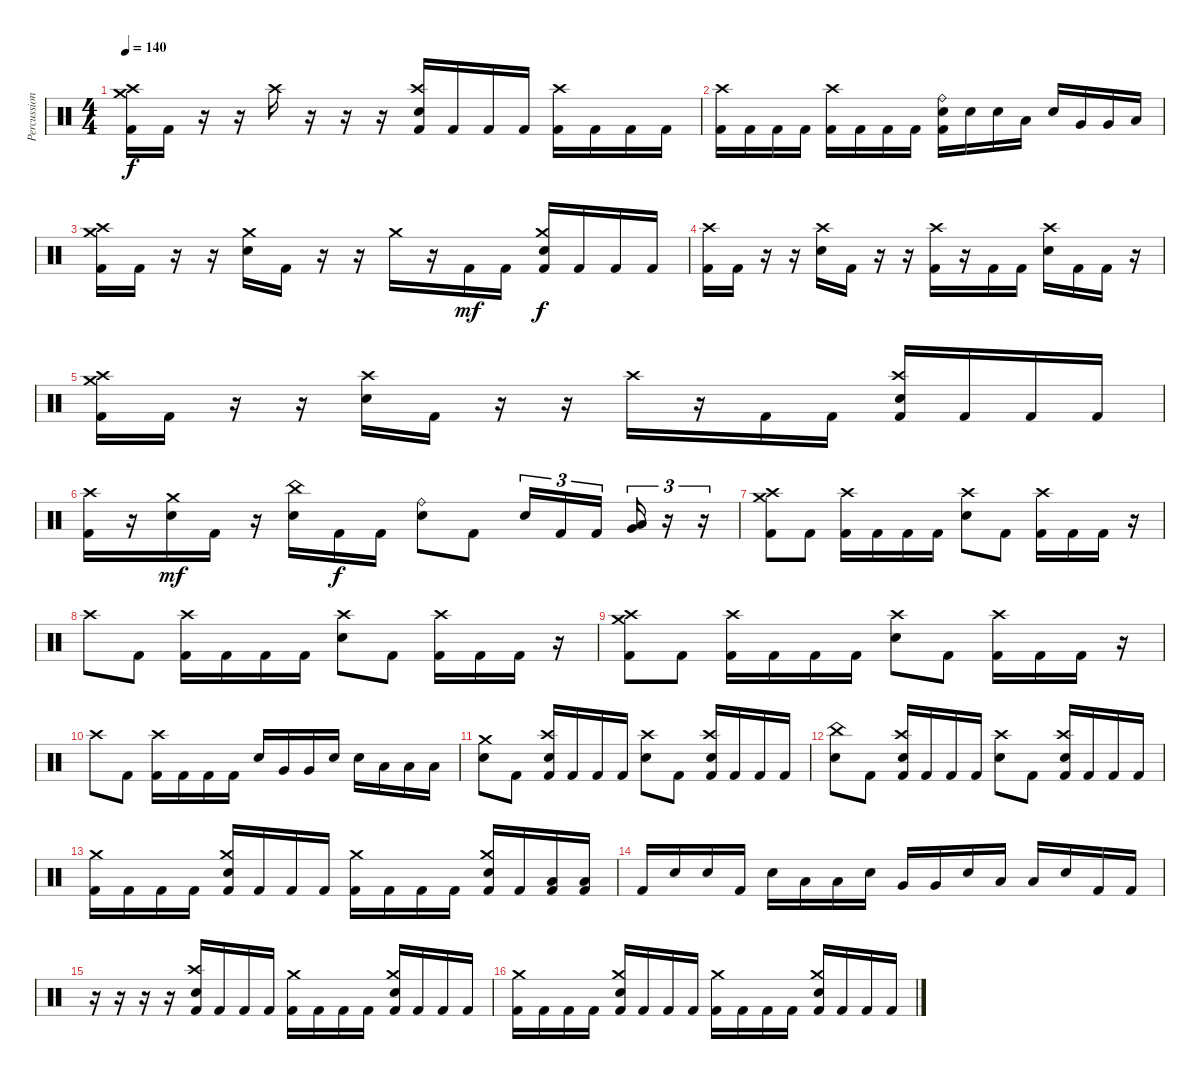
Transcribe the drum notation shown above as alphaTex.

\track ("Percussioni" "Percussion") {mute instrument percussion}
\staff {score}
\articulation defaults
\ts (4 4)
\tempo 140
\clef neutral
\ks c
("Kick (hit) 2" "Crash high (hit)" "Crash medium (hit)").16{dy f} "Kick (hit) 2".16 r.16 r.16 "Crash high (hit)".16 r.16 r.16 r.16 ("Kick (hit) 2" "Snare (hit) 2" "Crash high (hit)").16 "Kick (hit) 2".16 "Kick (hit) 2".16 "Kick (hit) 2".16 ("Kick (hit) 2" "Crash high (hit)").16 "Kick (hit) 2".16 "Kick (hit) 2".16 "Kick (hit) 2".16 |
("Kick (hit) 2" "Crash high (hit)").16 "Kick (hit) 2".16 "Kick (hit) 2".16 "Kick (hit) 2".16 ("Kick (hit) 2" "Crash high (hit)").16 "Kick (hit) 2".16 "Kick (hit) 2".16 "Kick (hit) 2".16 ("Kick (hit) 2" "Snare (hit) 2" "Ride (bell)").16 "Snare (hit) 2".16 "Snare (hit) 2".16 "Low Tom (hit)".16 "Snare (hit) 2".16 "Very Low Tom (hit)".16 "Very Low Tom (hit)".16 "Low Floor Tom (hit)".16 |
("Kick (hit) 2" "Crash high (hit)" "Crash medium (hit)").16 "Kick (hit) 2".16 r.16 r.16 ("Snare (hit) 2" "Crash medium (hit)").16 "Kick (hit) 2".16 r.16 r.16 "Crash medium (hit)".16 r.16 "Kick (hit) 2".16{dy mf} "Kick (hit) 2".16 ("Kick (hit) 2" "Snare (hit) 2" "Crash medium (hit)").16{dy f} "Kick (hit) 2".16 "Kick (hit) 2".16 "Kick (hit) 2".16 |
("Kick (hit) 2" "Crash high (hit)").16 "Kick (hit) 2".16 r.16 r.16 ("Snare (hit) 2" "Crash high (hit)").16 "Kick (hit) 2".16 r.16 r.16 ("Kick (hit) 2" "Crash high (hit)").16 r.16 "Kick (hit) 2".16 "Kick (hit) 2".16 ("Snare (hit) 2" "Crash high (hit)").16 "Kick (hit) 2".16 "Kick (hit) 2".16 r.16 |
("Kick (hit) 2" "Crash high (hit)" "Crash medium (hit)").16 "Kick (hit) 2".16 r.16 r.16 ("Snare (hit) 2" "Crash high (hit)").16 "Kick (hit) 2".16 r.16 r.16 "Crash high (hit)".16 r.16 "Kick (hit) 2".16 "Kick (hit) 2".16 ("Kick (hit) 2" "Snare (hit) 2" "Crash high (hit)").16 "Kick (hit) 2".16 "Kick (hit) 2".16 "Kick (hit) 2".16 |
("Kick (hit) 2" "Crash high (hit)").16 r.16 ("Snare (hit) 2" "Crash medium (hit)").16{dy mf} "Kick (hit) 2".16 r.16 ("Snare (hit) 2" "China (hit)").16 "Kick (hit) 2".16{dy f} "Kick (hit) 2".16 ("Snare (hit) 2" "Ride (bell)").8 "Kick (hit) 2".8 "Snare (hit) 2".16{tu (3 2)} "Kick (hit) 2".16{tu (3 2)} "Kick (hit) 2".16{tu (3 2) beam splitsecondary} ("Very Low Tom (hit)" "Low Floor Tom (hit)").16{tu (3 2)} r.16{tu (3 2)} r.16{tu (3 2)} |
("Kick (hit) 2" "Crash high (hit)" "Crash medium (hit)").8 "Kick (hit) 2".8 ("Kick (hit) 2" "Crash high (hit)").16 "Kick (hit) 2".16 "Kick (hit) 2".16 "Kick (hit) 2".16 ("Snare (hit) 2" "Crash high (hit)").8 "Kick (hit) 2".8 ("Kick (hit) 2" "Crash high (hit)").16 "Kick (hit) 2".16 "Kick (hit) 2".16 r.16 |
"Crash high (hit)".8 "Kick (hit) 2".8 ("Kick (hit) 2" "Crash high (hit)").16 "Kick (hit) 2".16 "Kick (hit) 2".16 "Kick (hit) 2".16 ("Snare (hit) 2" "Crash high (hit)").8 "Kick (hit) 2".8 ("Kick (hit) 2" "Crash high (hit)").16 "Kick (hit) 2".16 "Kick (hit) 2".16 r.16 |
("Kick (hit) 2" "Crash high (hit)" "Crash medium (hit)").8 "Kick (hit) 2".8 ("Kick (hit) 2" "Crash high (hit)").16 "Kick (hit) 2".16 "Kick (hit) 2".16 "Kick (hit) 2".16 ("Snare (hit) 2" "Crash high (hit)").8 "Kick (hit) 2".8 ("Kick (hit) 2" "Crash high (hit)").16 "Kick (hit) 2".16 "Kick (hit) 2".16 r.16 |
"Crash high (hit)".8 "Kick (hit) 2".8 ("Kick (hit) 2" "Crash high (hit)").16 "Kick (hit) 2".16 "Kick (hit) 2".16 "Kick (hit) 2".16 "Snare (hit) 2".16 "Very Low Tom (hit)".16 "Very Low Tom (hit)".16 "Snare (hit) 2".16 "Snare (hit) 2".16 "Low Floor Tom (hit)".16 "Low Floor Tom (hit)".16 "Low Floor Tom (hit)".16 |
("Snare (hit) 2" "Crash medium (hit)").8 "Kick (hit) 2".8 ("Kick (hit) 2" "Snare (hit) 2" "Crash high (hit)").16 "Kick (hit) 2".16 "Kick (hit) 2".16 "Kick (hit) 2".16 ("Snare (hit) 2" "Crash high (hit)").8 "Kick (hit) 2".8 ("Kick (hit) 2" "Snare (hit) 2" "Crash high (hit)").16 "Kick (hit) 2".16 "Kick (hit) 2".16 "Kick (hit) 2".16 |
("Snare (hit) 2" "China (hit)").8 "Kick (hit) 2".8 ("Kick (hit) 2" "Snare (hit) 2" "Crash high (hit)").16 "Kick (hit) 2".16 "Kick (hit) 2".16 "Kick (hit) 2".16 ("Snare (hit) 2" "Crash high (hit)").8 "Kick (hit) 2".8 ("Kick (hit) 2" "Snare (hit) 2" "Crash high (hit)").16 "Kick (hit) 2".16 "Kick (hit) 2".16 "Kick (hit) 2".16 |
("Kick (hit) 2" "Crash medium (hit)").16 "Kick (hit) 2".16 "Kick (hit) 2".16 "Kick (hit) 2".16 ("Kick (hit) 2" "Snare (hit) 2" "Crash medium (hit)").16 "Kick (hit) 2".16 "Kick (hit) 2".16 "Kick (hit) 2".16 ("Kick (hit) 2" "Crash medium (hit)").16 "Kick (hit) 2".16 "Kick (hit) 2".16 "Kick (hit) 2".16 ("Kick (hit) 2" "Snare (hit) 2" "Crash medium (hit)").16 "Kick (hit) 2".16 ("Kick (hit) 2" "Low Tom (hit)").16 ("Kick (hit) 2" "Low Tom (hit)").16 |
"Kick (hit) 2".16 "Snare (hit) 2".16 "Snare (hit) 2".16 "Kick (hit) 2".16 "Snare (hit) 2".16 "Low Tom (hit)".16 "Low Tom (hit)".16 "Snare (hit) 2".16 "Very Low Tom (hit)".16 "Very Low Tom (hit)".16 "Snare (hit) 2".16 "Low Floor Tom (hit)".16 "Low Floor Tom (hit)".16 "Snare (hit) 2".16 "Kick (hit) 2".16 "Kick (hit) 2".16 |
r.16 r.16 r.16 r.16 ("Crash high (hit)" "Snare (hit) 2" "Kick (hit) 2").16 "Kick (hit) 2".16 "Kick (hit) 2".16 "Kick (hit) 2".16 ("Crash medium (hit)" "Kick (hit) 2").16 "Kick (hit) 2".16 "Kick (hit) 2".16 "Kick (hit) 2".16 ("Crash medium (hit)" "Snare (hit) 2" "Kick (hit) 2").16 "Kick (hit) 2".16 "Kick (hit) 2".16 "Kick (hit) 2".16 |
("Crash medium (hit)" "Kick (hit) 2").16 "Kick (hit) 2".16 "Kick (hit) 2".16 "Kick (hit) 2".16 ("Crash medium (hit)" "Snare (hit) 2" "Kick (hit) 2").16 "Kick (hit) 2".16 "Kick (hit) 2".16 "Kick (hit) 2".16 ("Crash medium (hit)" "Kick (hit) 2").16 "Kick (hit) 2".16 "Kick (hit) 2".16 "Kick (hit) 2".16 ("Crash medium (hit)" "Snare (hit) 2" "Kick (hit) 2").16 "Kick (hit) 2".16 "Kick (hit) 2".16 "Kick (hit) 2".16
